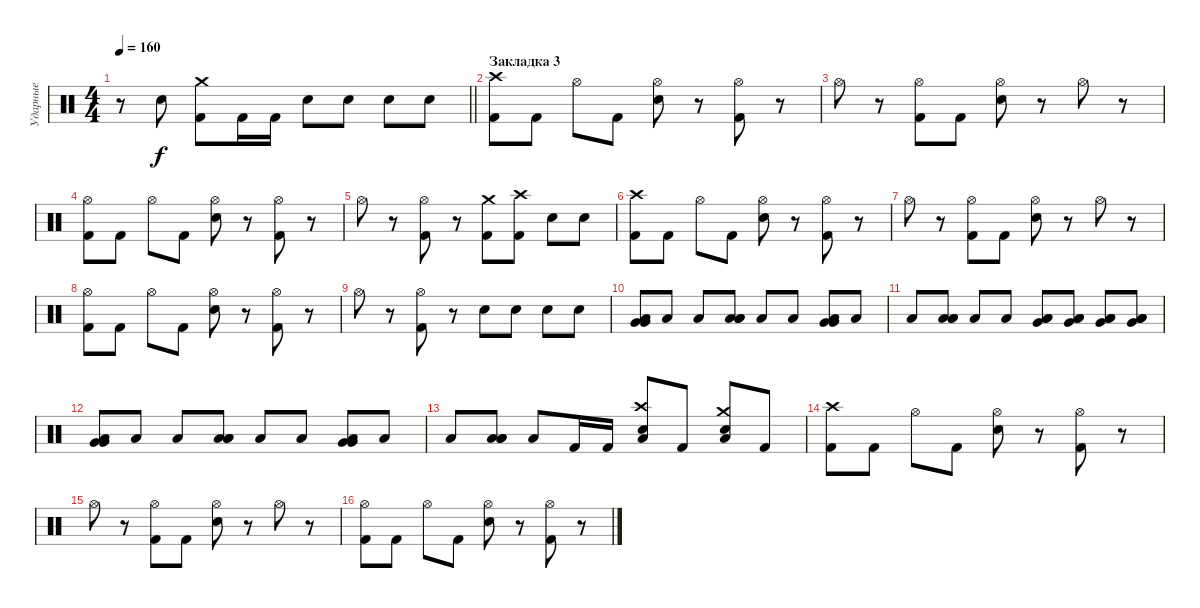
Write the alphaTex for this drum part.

\track ("Ударные" "Ударные") {instrument percussion}
\staff {score}
\articulation defaults
\ts (4 4)
\tempo 160
\clef neutral
\barLineRight lightlight
\ks c
r.8{dy f} "Snare (hit) 2".8 ("Crash medium (hit)" "Kick (hit) 2").8 "Kick (hit) 2".16 "Kick (hit) 2".16 "Snare (hit) 2".8 "Snare (hit) 2".8 "Snare (hit) 2".8 "Snare (hit) 2".8 |
\section ("" "Закладка 3")
("Crash high (hit)" "Kick (hit) 2").8 "Kick (hit) 2".8 "Hi-Hat (open)".8 "Kick (hit) 2".8 ("Hi-Hat (open)" "Snare (hit) 2").8 r.8 ("Hi-Hat (open)" "Kick (hit) 2").8 r.8 |
"Hi-Hat (open)".8 r.8 ("Hi-Hat (open)" "Kick (hit) 2").8 "Kick (hit) 2".8 ("Hi-Hat (open)" "Snare (hit) 2").8 r.8 "Hi-Hat (open)".8 r.8 |
("Hi-Hat (open)" "Kick (hit) 2").8 "Kick (hit) 2".8 "Hi-Hat (open)".8 "Kick (hit) 2".8 ("Hi-Hat (open)" "Snare (hit) 2").8 r.8 ("Hi-Hat (open)" "Kick (hit) 2").8 r.8 |
"Hi-Hat (open)".8 r.8 ("Hi-Hat (open)" "Kick (hit) 2").8 r.8 ("Crash medium (hit)" "Kick (hit) 2").8 ("Crash high (hit)" "Kick (hit) 2").8 "Snare (hit) 2".8 "Snare (hit) 2".8 |
("Crash high (hit)" "Kick (hit) 2").8 "Kick (hit) 2".8 "Hi-Hat (open)".8 "Kick (hit) 2".8 ("Hi-Hat (open)" "Snare (hit) 2").8 r.8 ("Hi-Hat (open)" "Kick (hit) 2").8 r.8 |
"Hi-Hat (open)".8 r.8 ("Hi-Hat (open)" "Kick (hit) 2").8 "Kick (hit) 2".8 ("Hi-Hat (open)" "Snare (hit) 2").8 r.8 "Hi-Hat (open)".8 r.8 |
("Hi-Hat (open)" "Kick (hit) 2").8 "Kick (hit) 2".8 "Hi-Hat (open)".8 "Kick (hit) 2".8 ("Hi-Hat (open)" "Snare (hit) 2").8 r.8 ("Hi-Hat (open)" "Kick (hit) 2").8 r.8 |
"Hi-Hat (open)".8 r.8 ("Hi-Hat (open)" "Kick (hit) 2").8 r.8 "Snare (hit) 2".8 "Snare (hit) 2".8 "Snare (hit) 2".8 "Snare (hit) 2".8 |
("Very Low Tom (hit)" "Very Low Tom (hit)" "Low Floor Tom (hit)").8 "Low Floor Tom (hit)".8 "Low Floor Tom (hit)".8 ("Low Tom (hit)" "Low Tom (hit)" "Low Floor Tom (hit)").8 "Low Floor Tom (hit)".8 "Low Floor Tom (hit)".8 ("Very Low Tom (hit)" "Very Low Tom (hit)" "Low Floor Tom (hit)").8 "Low Floor Tom (hit)".8 |
"Low Floor Tom (hit)".8 ("Low Tom (hit)" "Low Tom (hit)" "Low Floor Tom (hit)").8 "Low Floor Tom (hit)".8 "Low Floor Tom (hit)".8 ("Low Tom (hit)" "Low Floor Tom (hit)" "Very Low Tom (hit)").8 ("Low Tom (hit)" "Low Floor Tom (hit)" "Very Low Tom (hit)").8 ("Low Tom (hit)" "Low Floor Tom (hit)" "Very Low Tom (hit)").8 ("Low Tom (hit)" "Low Floor Tom (hit)" "Very Low Tom (hit)").8 |
("Very Low Tom (hit)" "Very Low Tom (hit)" "Low Floor Tom (hit)").8 "Low Floor Tom (hit)".8 "Low Floor Tom (hit)".8 ("Low Tom (hit)" "Low Tom (hit)" "Low Floor Tom (hit)").8 "Low Floor Tom (hit)".8 "Low Floor Tom (hit)".8 ("Very Low Tom (hit)" "Very Low Tom (hit)" "Low Floor Tom (hit)").8 "Low Floor Tom (hit)".8 |
"Low Floor Tom (hit)".8 ("Low Tom (hit)" "Low Tom (hit)" "Low Floor Tom (hit)").8 "Low Floor Tom (hit)".8 "Kick (hit) 2".16 "Kick (hit) 2".16 ("Crash high (hit)" "Snare (hit) 2" "Low Floor Tom (hit)").8 "Kick (hit) 2".8 ("Crash medium (hit)" "Snare (hit) 2" "Low Floor Tom (hit)").8 "Kick (hit) 2".8 |
("Crash high (hit)" "Kick (hit) 2").8 "Kick (hit) 2".8 "Hi-Hat (open)".8 "Kick (hit) 2".8 ("Hi-Hat (open)" "Snare (hit) 2").8 r.8 ("Hi-Hat (open)" "Kick (hit) 2").8 r.8 |
"Hi-Hat (open)".8 r.8 ("Hi-Hat (open)" "Kick (hit) 2").8 "Kick (hit) 2".8 ("Hi-Hat (open)" "Snare (hit) 2").8 r.8 "Hi-Hat (open)".8 r.8 |
("Hi-Hat (open)" "Kick (hit) 2").8 "Kick (hit) 2".8 "Hi-Hat (open)".8 "Kick (hit) 2".8 ("Hi-Hat (open)" "Snare (hit) 2").8 r.8 ("Hi-Hat (open)" "Kick (hit) 2").8 r.8
